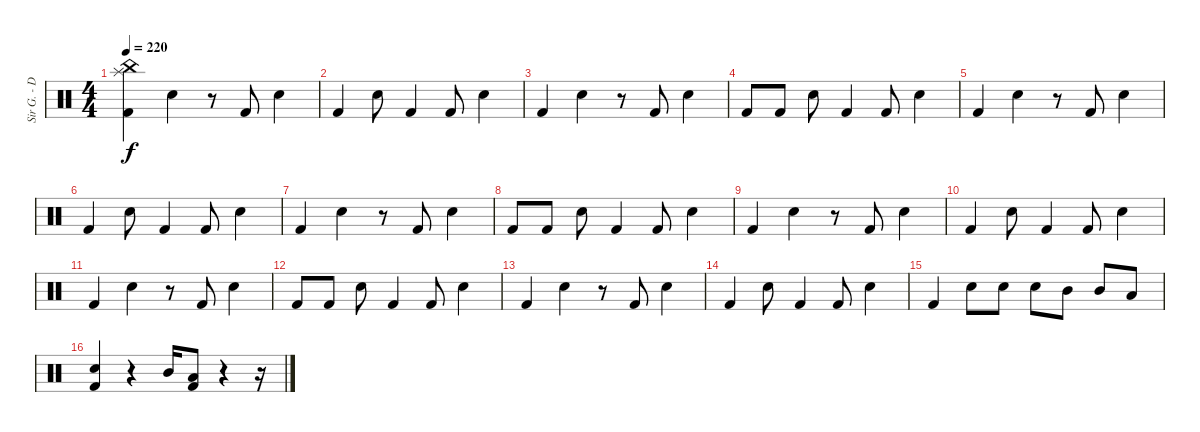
\track ("Sir G. - Drums" "Sir G. - D") {instrument percussion}
\staff {score}
\articulation defaults
\ts (4 4)
\tempo 220
\clef neutral
\ks c
("China (hit)" "Splash (hit)" "Kick (hit) 2").4{dy f} "Snare (hit) 2".4 r.8 "Kick (hit) 2".8 "Snare (hit) 2".4 |
"Kick (hit) 2".4 "Snare (hit) 2".8 "Kick (hit) 2".4 "Kick (hit) 2".8 "Snare (hit) 2".4 |
"Kick (hit) 2".4 "Snare (hit) 2".4 r.8 "Kick (hit) 2".8 "Snare (hit) 2".4 |
"Kick (hit) 2".8 "Kick (hit) 2".8 "Snare (hit) 2".8 "Kick (hit) 2".4 "Kick (hit) 2".8 "Snare (hit) 2".4 |
"Kick (hit) 2".4 "Snare (hit) 2".4 r.8 "Kick (hit) 2".8 "Snare (hit) 2".4 |
"Kick (hit) 2".4 "Snare (hit) 2".8 "Kick (hit) 2".4 "Kick (hit) 2".8 "Snare (hit) 2".4 |
"Kick (hit) 2".4 "Snare (hit) 2".4 r.8 "Kick (hit) 2".8 "Snare (hit) 2".4 |
"Kick (hit) 2".8 "Kick (hit) 2".8 "Snare (hit) 2".8 "Kick (hit) 2".4 "Kick (hit) 2".8 "Snare (hit) 2".4 |
"Kick (hit) 2".4 "Snare (hit) 2".4 r.8 "Kick (hit) 2".8 "Snare (hit) 2".4 |
"Kick (hit) 2".4 "Snare (hit) 2".8 "Kick (hit) 2".4 "Kick (hit) 2".8 "Snare (hit) 2".4 |
"Kick (hit) 2".4 "Snare (hit) 2".4 r.8 "Kick (hit) 2".8 "Snare (hit) 2".4 |
"Kick (hit) 2".8 "Kick (hit) 2".8 "Snare (hit) 2".8 "Kick (hit) 2".4 "Kick (hit) 2".8 "Snare (hit) 2".4 |
"Kick (hit) 2".4 "Snare (hit) 2".4 r.8 "Kick (hit) 2".8 "Snare (hit) 2".4 |
"Kick (hit) 2".4 "Snare (hit) 2".8 "Kick (hit) 2".4 "Kick (hit) 2".8 "Snare (hit) 2".4 |
"Kick (hit) 2".4 "Snare (hit) 2".8 "Snare (hit) 2".8 "Snare (hit) 2".8 "Mid Tom (hit)".8 "Mid Tom (hit)".8 "Low Tom (hit)".8 |
("Kick (hit) 2" "Snare (hit) 2").4 r.4 "Mid Tom (hit)".16 ("Low Floor Tom (hit)" "Kick (hit) 2").8 r.4 r.16
